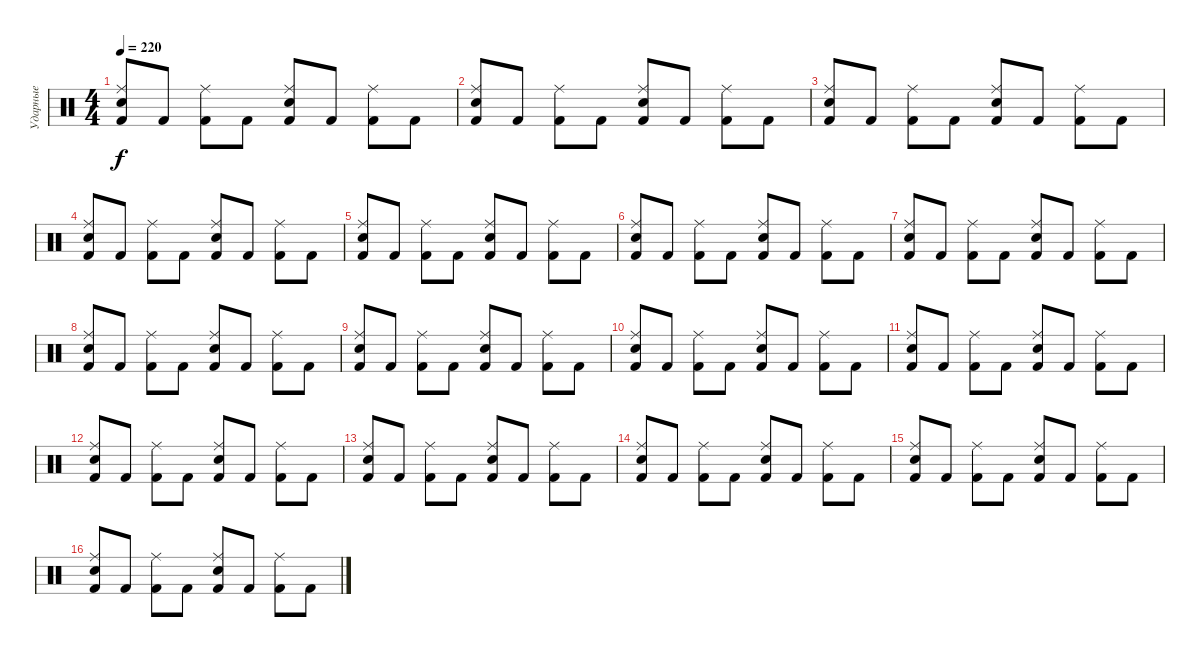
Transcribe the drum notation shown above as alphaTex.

\track ("Ударные" "Ударные") {instrument percussion}
\staff {score}
\articulation defaults
\ts (4 4)
\tempo 220
\clef neutral
\ks c
("Electric Snare (hit)" "Ride (middle)" "Kick (hit) 2").8{dy f} "Kick (hit) 2".8 ("Ride (middle)" "Kick (hit) 2").8 "Kick (hit) 2".8 ("Electric Snare (hit)" "Ride (middle)" "Kick (hit) 2").8 "Kick (hit) 2".8 ("Ride (middle)" "Kick (hit) 2").8 "Kick (hit) 2".8 |
("Electric Snare (hit)" "Ride (middle)" "Kick (hit) 2").8 "Kick (hit) 2".8 ("Ride (middle)" "Kick (hit) 2").8 "Kick (hit) 2".8 ("Electric Snare (hit)" "Ride (middle)" "Kick (hit) 2").8 "Kick (hit) 2".8 ("Ride (middle)" "Kick (hit) 2").8 "Kick (hit) 2".8 |
("Electric Snare (hit)" "Ride (middle)" "Kick (hit) 2").8 "Kick (hit) 2".8 ("Ride (middle)" "Kick (hit) 2").8 "Kick (hit) 2".8 ("Electric Snare (hit)" "Ride (middle)" "Kick (hit) 2").8 "Kick (hit) 2".8 ("Ride (middle)" "Kick (hit) 2").8 "Kick (hit) 2".8 |
("Electric Snare (hit)" "Ride (middle)" "Kick (hit) 2").8 "Kick (hit) 2".8 ("Ride (middle)" "Kick (hit) 2").8 "Kick (hit) 2".8 ("Electric Snare (hit)" "Ride (middle)" "Kick (hit) 2").8 "Kick (hit) 2".8 ("Ride (middle)" "Kick (hit) 2").8 "Kick (hit) 2".8 |
("Electric Snare (hit)" "Ride (middle)" "Kick (hit) 2").8 "Kick (hit) 2".8 ("Ride (middle)" "Kick (hit) 2").8 "Kick (hit) 2".8 ("Electric Snare (hit)" "Ride (middle)" "Kick (hit) 2").8 "Kick (hit) 2".8 ("Ride (middle)" "Kick (hit) 2").8 "Kick (hit) 2".8 |
("Electric Snare (hit)" "Ride (middle)" "Kick (hit) 2").8 "Kick (hit) 2".8 ("Ride (middle)" "Kick (hit) 2").8 "Kick (hit) 2".8 ("Electric Snare (hit)" "Ride (middle)" "Kick (hit) 2").8 "Kick (hit) 2".8 ("Ride (middle)" "Kick (hit) 2").8 "Kick (hit) 2".8 |
("Electric Snare (hit)" "Ride (middle)" "Kick (hit) 2").8 "Kick (hit) 2".8 ("Ride (middle)" "Kick (hit) 2").8 "Kick (hit) 2".8 ("Electric Snare (hit)" "Ride (middle)" "Kick (hit) 2").8 "Kick (hit) 2".8 ("Ride (middle)" "Kick (hit) 2").8 "Kick (hit) 2".8 |
("Electric Snare (hit)" "Ride (middle)" "Kick (hit) 2").8 "Kick (hit) 2".8 ("Ride (middle)" "Kick (hit) 2").8 "Kick (hit) 2".8 ("Electric Snare (hit)" "Ride (middle)" "Kick (hit) 2").8 "Kick (hit) 2".8 ("Ride (middle)" "Kick (hit) 2").8 "Kick (hit) 2".8 |
("Electric Snare (hit)" "Ride (middle)" "Kick (hit) 2").8 "Kick (hit) 2".8 ("Ride (middle)" "Kick (hit) 2").8 "Kick (hit) 2".8 ("Electric Snare (hit)" "Ride (middle)" "Kick (hit) 2").8 "Kick (hit) 2".8 ("Ride (middle)" "Kick (hit) 2").8 "Kick (hit) 2".8 |
("Electric Snare (hit)" "Ride (middle)" "Kick (hit) 2").8 "Kick (hit) 2".8 ("Ride (middle)" "Kick (hit) 2").8 "Kick (hit) 2".8 ("Electric Snare (hit)" "Ride (middle)" "Kick (hit) 2").8 "Kick (hit) 2".8 ("Ride (middle)" "Kick (hit) 2").8 "Kick (hit) 2".8 |
("Electric Snare (hit)" "Ride (middle)" "Kick (hit) 2").8 "Kick (hit) 2".8 ("Ride (middle)" "Kick (hit) 2").8 "Kick (hit) 2".8 ("Electric Snare (hit)" "Ride (middle)" "Kick (hit) 2").8 "Kick (hit) 2".8 ("Ride (middle)" "Kick (hit) 2").8 "Kick (hit) 2".8 |
("Electric Snare (hit)" "Ride (middle)" "Kick (hit) 2").8 "Kick (hit) 2".8 ("Ride (middle)" "Kick (hit) 2").8 "Kick (hit) 2".8 ("Electric Snare (hit)" "Ride (middle)" "Kick (hit) 2").8 "Kick (hit) 2".8 ("Ride (middle)" "Kick (hit) 2").8 "Kick (hit) 2".8 |
("Electric Snare (hit)" "Ride (middle)" "Kick (hit) 2").8 "Kick (hit) 2".8 ("Ride (middle)" "Kick (hit) 2").8 "Kick (hit) 2".8 ("Electric Snare (hit)" "Ride (middle)" "Kick (hit) 2").8 "Kick (hit) 2".8 ("Ride (middle)" "Kick (hit) 2").8 "Kick (hit) 2".8 |
("Electric Snare (hit)" "Ride (middle)" "Kick (hit) 2").8 "Kick (hit) 2".8 ("Ride (middle)" "Kick (hit) 2").8 "Kick (hit) 2".8 ("Electric Snare (hit)" "Ride (middle)" "Kick (hit) 2").8 "Kick (hit) 2".8 ("Ride (middle)" "Kick (hit) 2").8 "Kick (hit) 2".8 |
("Electric Snare (hit)" "Ride (middle)" "Kick (hit) 2").8 "Kick (hit) 2".8 ("Ride (middle)" "Kick (hit) 2").8 "Kick (hit) 2".8 ("Electric Snare (hit)" "Ride (middle)" "Kick (hit) 2").8 "Kick (hit) 2".8 ("Ride (middle)" "Kick (hit) 2").8 "Kick (hit) 2".8 |
("Electric Snare (hit)" "Ride (middle)" "Kick (hit) 2").8 "Kick (hit) 2".8 ("Ride (middle)" "Kick (hit) 2").8 "Kick (hit) 2".8 ("Electric Snare (hit)" "Ride (middle)" "Kick (hit) 2").8 "Kick (hit) 2".8 ("Ride (middle)" "Kick (hit) 2").8 "Kick (hit) 2".8
